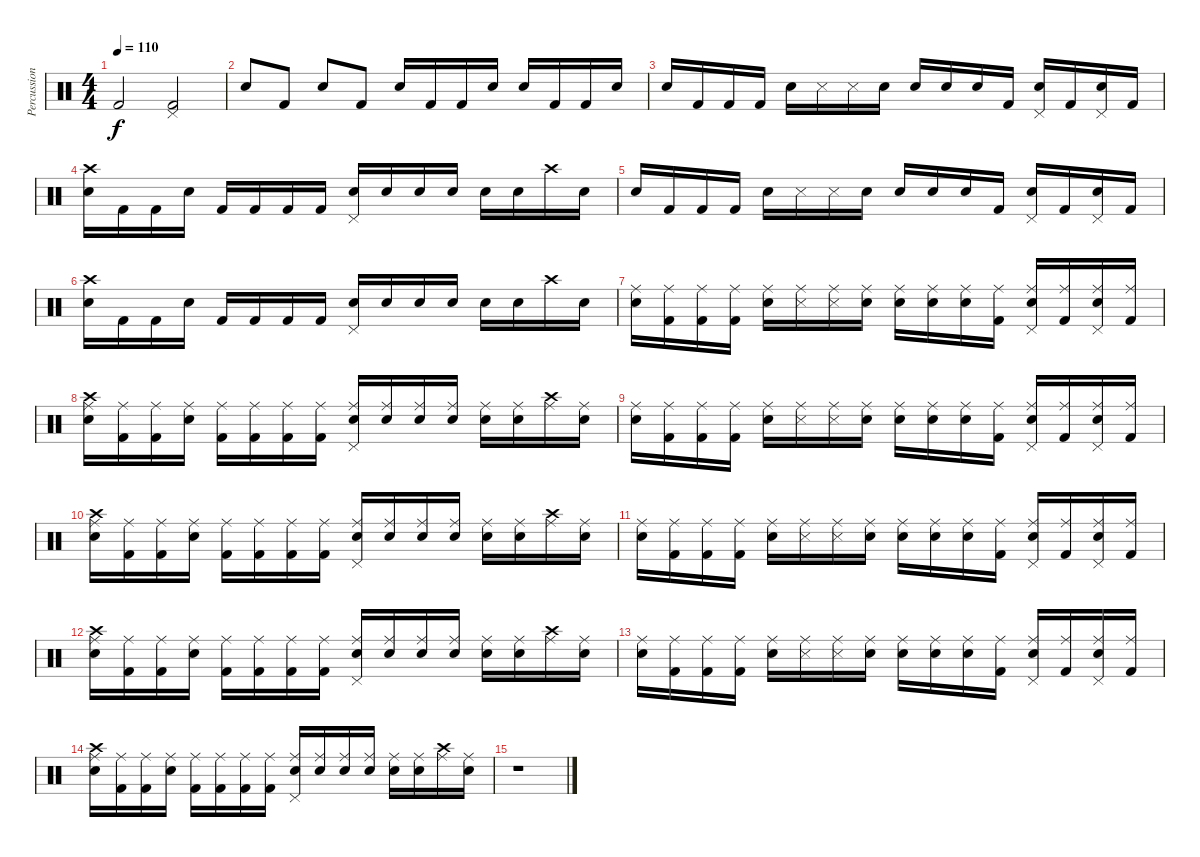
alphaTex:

\track ("Percussions" "Percussion") {instrument percussion}
\staff {score}
\articulation defaults
\ts (4 4)
\tempo 110
\clef neutral
\ks c "Kick (hit) 2".2{dy f}
("Pedal Hi-Hat (hit)" "Kick (hit) 2").2 |
"Snare (hit) 2".8 "Kick (hit) 2".8 "Snare (hit) 2".8 "Kick (hit) 2".8 "Snare (hit) 2".16 "Kick (hit) 2".16 "Kick (hit) 2".16 "Snare (hit) 2".16 "Electric Snare (hit)".16 "Kick (hit) 2".16 "Kick (hit) 2".16 "Snare (hit) 2".16 |
"Electric Snare (hit)".16 "Kick (hit) 2".16 "Kick (hit) 2".16 "Kick (hit) 2".16 "Electric Snare (hit)".16 "Snare (side stick) 3".16 "Snare (side stick) 3".16 "Snare (hit) 2".16 "Electric Snare (hit)".16 "Snare (hit) 2".16 "Electric Snare (hit)".16 "Kick (hit) 2".16 ("Pedal Hi-Hat (hit)" "Snare (hit) 2").16 "Kick (hit) 2".16 ("Pedal Hi-Hat (hit)" "Snare (hit) 2").16 "Kick (hit) 2".16 |
("Crash high (hit)" "Electric Snare (hit)").16 "Kick (hit) 2".16 "Kick (hit) 2".16 "Electric Snare (hit)".16 "Kick (hit) 2".16 "Kick (hit) 2".16 "Kick (hit) 2".16 "Kick (hit) 2".16 ("Pedal Hi-Hat (hit)" "Electric Snare (hit)").16 "Snare (hit) 2".16 "Snare (hit) 2".16 "Electric Snare (hit)".16 "Snare (hit) 2".16 "Snare (hit) 2".16 "Crash high (hit)".16 "Electric Snare (hit)".16 |
"Electric Snare (hit)".16 "Kick (hit) 2".16 "Kick (hit) 2".16 "Kick (hit) 2".16 "Electric Snare (hit)".16 "Snare (side stick) 3".16 "Snare (side stick) 3".16 "Snare (hit) 2".16 "Electric Snare (hit)".16 "Snare (hit) 2".16 "Electric Snare (hit)".16 "Kick (hit) 2".16 ("Pedal Hi-Hat (hit)" "Snare (hit) 2").16 "Kick (hit) 2".16 ("Pedal Hi-Hat (hit)" "Snare (hit) 2").16 "Kick (hit) 2".16 |
("Crash high (hit)" "Electric Snare (hit)").16 "Kick (hit) 2".16 "Kick (hit) 2".16 "Electric Snare (hit)".16 "Kick (hit) 2".16 "Kick (hit) 2".16 "Kick (hit) 2".16 "Kick (hit) 2".16 ("Pedal Hi-Hat (hit)" "Electric Snare (hit)").16 "Snare (hit) 2".16 "Snare (hit) 2".16 "Electric Snare (hit)".16 "Snare (hit) 2".16 "Snare (hit) 2".16 "Crash high (hit)".16 "Electric Snare (hit)".16 |
("Ride (middle)" "Electric Snare (hit)").16 ("Ride (middle)" "Kick (hit) 2").16 ("Ride (middle)" "Kick (hit) 2").16 ("Ride (middle)" "Kick (hit) 2").16 ("Ride (middle)" "Electric Snare (hit)").16 ("Ride (middle)" "Snare (side stick) 3").16 ("Ride (middle)" "Snare (side stick) 3").16 ("Ride (middle)" "Snare (hit) 2").16 ("Ride (middle)" "Electric Snare (hit)").16 ("Ride (middle)" "Snare (hit) 2").16 ("Ride (middle)" "Electric Snare (hit)").16 ("Ride (middle)" "Kick (hit) 2").16 ("Ride (middle)" "Pedal Hi-Hat (hit)" "Snare (hit) 2").16 ("Ride (middle)" "Kick (hit) 2").16 ("Ride (middle)" "Pedal Hi-Hat (hit)" "Snare (hit) 2").16 ("Ride (middle)" "Kick (hit) 2").16 |
("Ride (middle)" "Crash high (hit)" "Electric Snare (hit)").16 ("Ride (middle)" "Kick (hit) 2").16 ("Ride (middle)" "Kick (hit) 2").16 ("Ride (middle)" "Electric Snare (hit)").16 ("Ride (middle)" "Kick (hit) 2").16 ("Ride (middle)" "Kick (hit) 2").16 ("Ride (middle)" "Kick (hit) 2").16 ("Ride (middle)" "Kick (hit) 2").16 ("Ride (middle)" "Pedal Hi-Hat (hit)" "Electric Snare (hit)").16 ("Ride (middle)" "Snare (hit) 2").16 ("Ride (middle)" "Snare (hit) 2").16 ("Ride (middle)" "Electric Snare (hit)").16 ("Ride (middle)" "Snare (hit) 2").16 ("Ride (middle)" "Snare (hit) 2").16 ("Ride (middle)" "Crash high (hit)").16 ("Ride (middle)" "Electric Snare (hit)").16 |
("Ride (middle)" "Electric Snare (hit)").16 ("Ride (middle)" "Kick (hit) 2").16 ("Ride (middle)" "Kick (hit) 2").16 ("Ride (middle)" "Kick (hit) 2").16 ("Ride (middle)" "Electric Snare (hit)").16 ("Ride (middle)" "Snare (side stick) 3").16 ("Ride (middle)" "Snare (side stick) 3").16 ("Ride (middle)" "Snare (hit) 2").16 ("Ride (middle)" "Electric Snare (hit)").16 ("Ride (middle)" "Snare (hit) 2").16 ("Ride (middle)" "Electric Snare (hit)").16 ("Ride (middle)" "Kick (hit) 2").16 ("Ride (middle)" "Pedal Hi-Hat (hit)" "Snare (hit) 2").16 ("Ride (middle)" "Kick (hit) 2").16 ("Ride (middle)" "Pedal Hi-Hat (hit)" "Snare (hit) 2").16 ("Ride (middle)" "Kick (hit) 2").16 |
("Ride (middle)" "Crash high (hit)" "Electric Snare (hit)").16 ("Ride (middle)" "Kick (hit) 2").16 ("Ride (middle)" "Kick (hit) 2").16 ("Ride (middle)" "Electric Snare (hit)").16 ("Ride (middle)" "Kick (hit) 2").16 ("Ride (middle)" "Kick (hit) 2").16 ("Ride (middle)" "Kick (hit) 2").16 ("Ride (middle)" "Kick (hit) 2").16 ("Ride (middle)" "Pedal Hi-Hat (hit)" "Electric Snare (hit)").16 ("Ride (middle)" "Snare (hit) 2").16 ("Ride (middle)" "Snare (hit) 2").16 ("Ride (middle)" "Electric Snare (hit)").16 ("Ride (middle)" "Snare (hit) 2").16 ("Ride (middle)" "Snare (hit) 2").16 ("Ride (middle)" "Crash high (hit)").16 ("Ride (middle)" "Electric Snare (hit)").16 |
("Ride (middle)" "Electric Snare (hit)").16{volume 0} ("Ride (middle)" "Kick (hit) 2").16 ("Ride (middle)" "Kick (hit) 2").16 ("Ride (middle)" "Kick (hit) 2").16 ("Ride (middle)" "Electric Snare (hit)").16 ("Ride (middle)" "Snare (side stick) 3").16 ("Ride (middle)" "Snare (side stick) 3").16 ("Ride (middle)" "Snare (hit) 2").16 ("Ride (middle)" "Electric Snare (hit)").16 ("Ride (middle)" "Snare (hit) 2").16 ("Ride (middle)" "Electric Snare (hit)").16 ("Ride (middle)" "Kick (hit) 2").16 ("Ride (middle)" "Pedal Hi-Hat (hit)" "Snare (hit) 2").16 ("Ride (middle)" "Kick (hit) 2").16 ("Ride (middle)" "Pedal Hi-Hat (hit)" "Snare (hit) 2").16 ("Ride (middle)" "Kick (hit) 2").16 |
("Ride (middle)" "Crash high (hit)" "Electric Snare (hit)").16 ("Ride (middle)" "Kick (hit) 2").16 ("Ride (middle)" "Kick (hit) 2").16 ("Ride (middle)" "Electric Snare (hit)").16 ("Ride (middle)" "Kick (hit) 2").16 ("Ride (middle)" "Kick (hit) 2").16 ("Ride (middle)" "Kick (hit) 2").16 ("Ride (middle)" "Kick (hit) 2").16 ("Ride (middle)" "Pedal Hi-Hat (hit)" "Electric Snare (hit)").16 ("Ride (middle)" "Snare (hit) 2").16 ("Ride (middle)" "Snare (hit) 2").16 ("Ride (middle)" "Electric Snare (hit)").16 ("Ride (middle)" "Snare (hit) 2").16 ("Ride (middle)" "Snare (hit) 2").16 ("Ride (middle)" "Crash high (hit)").16 ("Ride (middle)" "Electric Snare (hit)").16 |
("Ride (middle)" "Electric Snare (hit)").16 ("Ride (middle)" "Kick (hit) 2").16 ("Ride (middle)" "Kick (hit) 2").16 ("Ride (middle)" "Kick (hit) 2").16 ("Ride (middle)" "Electric Snare (hit)").16 ("Ride (middle)" "Snare (side stick) 3").16 ("Ride (middle)" "Snare (side stick) 3").16 ("Ride (middle)" "Snare (hit) 2").16 ("Ride (middle)" "Electric Snare (hit)").16 ("Ride (middle)" "Snare (hit) 2").16 ("Ride (middle)" "Electric Snare (hit)").16 ("Ride (middle)" "Kick (hit) 2").16 ("Ride (middle)" "Pedal Hi-Hat (hit)" "Snare (hit) 2").16 ("Ride (middle)" "Kick (hit) 2").16 ("Ride (middle)" "Pedal Hi-Hat (hit)" "Snare (hit) 2").16 ("Ride (middle)" "Kick (hit) 2").16 |
("Ride (middle)" "Crash high (hit)" "Electric Snare (hit)").16 ("Ride (middle)" "Kick (hit) 2").16 ("Ride (middle)" "Kick (hit) 2").16 ("Ride (middle)" "Electric Snare (hit)").16 ("Ride (middle)" "Kick (hit) 2").16 ("Ride (middle)" "Kick (hit) 2").16 ("Ride (middle)" "Kick (hit) 2").16 ("Ride (middle)" "Kick (hit) 2").16 ("Ride (middle)" "Pedal Hi-Hat (hit)" "Electric Snare (hit)").16 ("Ride (middle)" "Snare (hit) 2").16 ("Ride (middle)" "Snare (hit) 2").16 ("Ride (middle)" "Electric Snare (hit)").16 ("Ride (middle)" "Snare (hit) 2").16 ("Ride (middle)" "Snare (hit) 2").16 ("Ride (middle)" "Crash high (hit)").16 ("Ride (middle)" "Electric Snare (hit)").16 |
r.1
